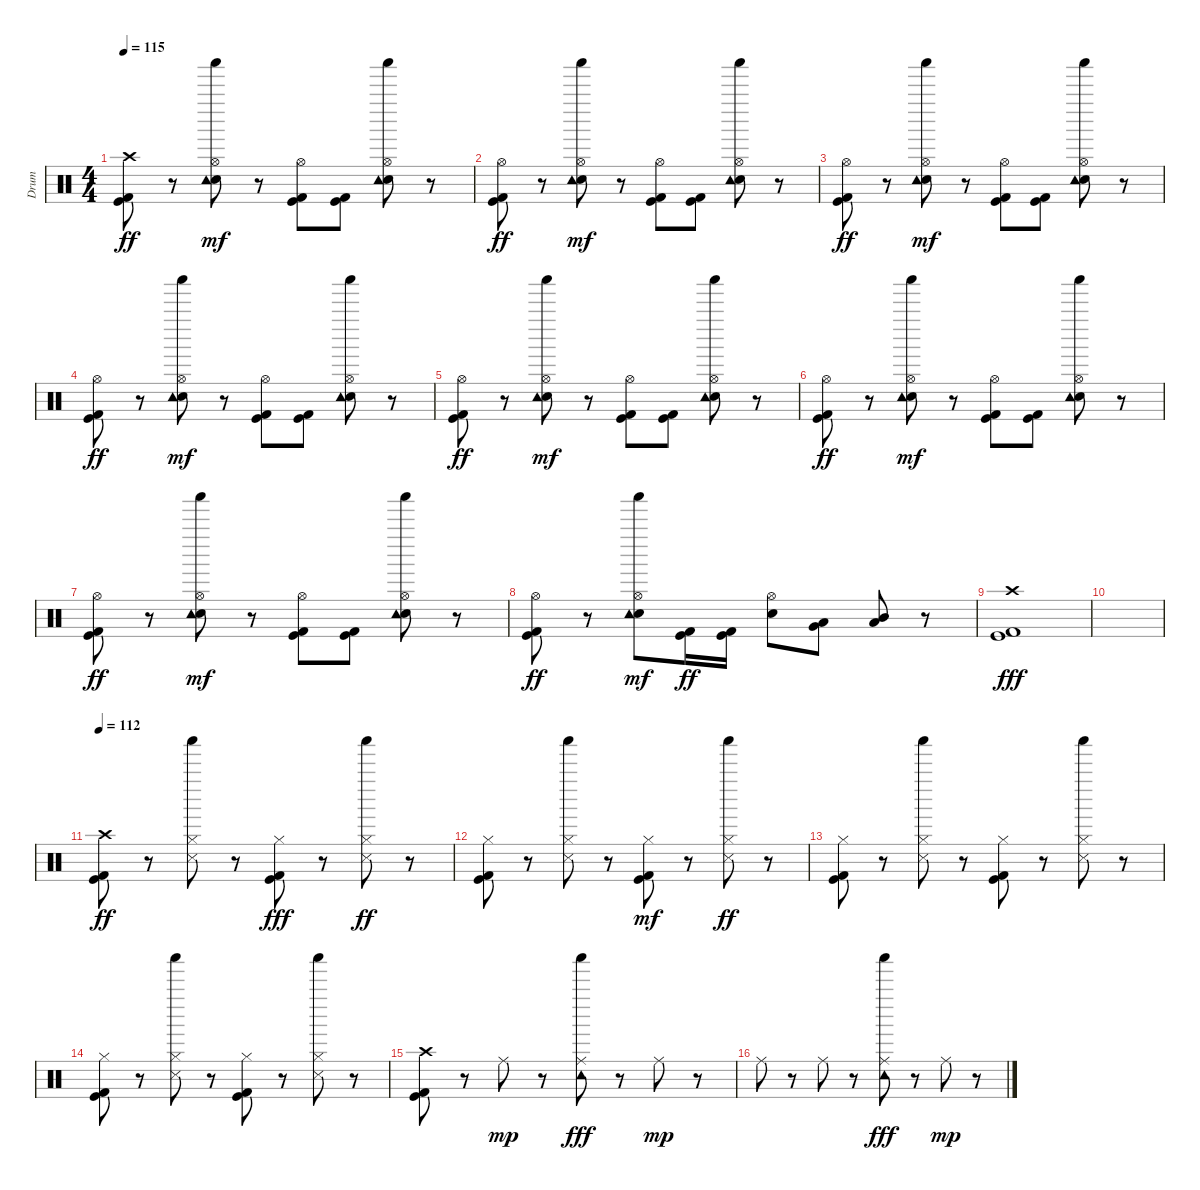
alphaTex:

\track ("Drum" "Drum") {instrument percussion}
\staff {score}
\articulation defaults
\ts (4 4)
\tempo 115
\clef neutral
\ks c
("Crash high (hit)" "Kick (hit)" "Kick (hit) 2").8{dy ff} r.8 ("Hi-Hat (open)" "Shaker (hit)" "Snare (hit) 2" "Tambourine (hit)").8{dy mf} r.8 ("Hi-Hat (open)" "Kick (hit)" "Kick (hit) 2").8 ("Kick (hit)" "Kick (hit) 2").8 ("Hi-Hat (open)" "Shaker (hit)" "Snare (hit) 2" "Tambourine (hit)").8 r.8 |
("Hi-Hat (open)" "Kick (hit)" "Kick (hit) 2").8{dy ff} r.8 ("Hi-Hat (open)" "Shaker (hit)" "Snare (hit) 2" "Tambourine (hit)").8{dy mf} r.8 ("Hi-Hat (open)" "Kick (hit)" "Kick (hit) 2").8 ("Kick (hit)" "Kick (hit) 2").8 ("Hi-Hat (open)" "Shaker (hit)" "Snare (hit) 2" "Tambourine (hit)").8 r.8 |
("Hi-Hat (open)" "Kick (hit)" "Kick (hit) 2").8{dy ff} r.8 ("Hi-Hat (open)" "Shaker (hit)" "Snare (hit) 2" "Tambourine (hit)").8{dy mf} r.8 ("Hi-Hat (open)" "Kick (hit)" "Kick (hit) 2").8 ("Kick (hit)" "Kick (hit) 2").8 ("Hi-Hat (open)" "Shaker (hit)" "Snare (hit) 2" "Tambourine (hit)").8 r.8 |
("Hi-Hat (open)" "Kick (hit)" "Kick (hit) 2").8{dy ff} r.8 ("Hi-Hat (open)" "Shaker (hit)" "Snare (hit) 2" "Tambourine (hit)").8{dy mf} r.8 ("Hi-Hat (open)" "Kick (hit)" "Kick (hit) 2").8 ("Kick (hit)" "Kick (hit) 2").8 ("Hi-Hat (open)" "Shaker (hit)" "Snare (hit) 2" "Tambourine (hit)").8 r.8 |
("Hi-Hat (open)" "Kick (hit)" "Kick (hit) 2").8{dy ff} r.8 ("Hi-Hat (open)" "Shaker (hit)" "Snare (hit) 2" "Tambourine (hit)").8{dy mf} r.8 ("Hi-Hat (open)" "Kick (hit)" "Kick (hit) 2").8 ("Kick (hit)" "Kick (hit) 2").8 ("Hi-Hat (open)" "Shaker (hit)" "Snare (hit) 2" "Tambourine (hit)").8 r.8 |
("Hi-Hat (open)" "Kick (hit)" "Kick (hit) 2").8{dy ff} r.8 ("Hi-Hat (open)" "Shaker (hit)" "Snare (hit) 2" "Tambourine (hit)").8{dy mf} r.8 ("Hi-Hat (open)" "Kick (hit)" "Kick (hit) 2").8 ("Kick (hit)" "Kick (hit) 2").8 ("Hi-Hat (open)" "Shaker (hit)" "Snare (hit) 2" "Tambourine (hit)").8 r.8 |
("Hi-Hat (open)" "Kick (hit)" "Kick (hit) 2").8{dy ff} r.8 ("Hi-Hat (open)" "Shaker (hit)" "Snare (hit) 2" "Tambourine (hit)").8{dy mf} r.8 ("Hi-Hat (open)" "Kick (hit)" "Kick (hit) 2").8 ("Kick (hit)" "Kick (hit) 2").8 ("Hi-Hat (open)" "Shaker (hit)" "Snare (hit) 2" "Tambourine (hit)").8 r.8 |
("Hi-Hat (open)" "Kick (hit)" "Kick (hit) 2").8{dy ff} r.8 ("Hi-Hat (open)" "Shaker (hit)" "Snare (hit) 2" "Tambourine (hit)").8{dy mf} ("Kick (hit)" "Kick (hit) 2").16{dy ff} ("Kick (hit)" "Kick (hit) 2").16 ("Hi-Hat (open)" "Snare (hit) 2").8 ("Very Low Tom (hit)" "Low Floor Tom (hit)").8 ("Mid Tom (hit)" "Low Tom (hit)").8 r.8 |
("Crash high (hit)" "Kick (hit)" "Kick (hit) 2").1{dy fff} |
|
\tempo 112
("Crash high (hit)" "Kick (hit)" "Kick (hit) 2").8{dy ff} r.8 ("Hi-Hat (closed)" "Shaker (hit)" "Snare (side stick) 3").8 r.8 ("Hi-Hat (closed)" "Kick (hit)" "Kick (hit) 2").8{dy fff} r.8 ("Hi-Hat (closed)" "Shaker (hit)" "Snare (side stick) 3").8{dy ff} r.8 |
("Hi-Hat (closed)" "Kick (hit)" "Kick (hit) 2").8 r.8 ("Hi-Hat (closed)" "Shaker (hit)" "Snare (side stick) 3").8 r.8 ("Hi-Hat (closed)" "Kick (hit)" "Kick (hit) 2").8{dy mf} r.8 ("Hi-Hat (closed)" "Shaker (hit)" "Snare (side stick) 3").8{dy ff} r.8 |
("Hi-Hat (closed)" "Kick (hit)" "Kick (hit) 2").8 r.8 ("Hi-Hat (closed)" "Shaker (hit)" "Snare (side stick) 3").8 r.8 ("Hi-Hat (closed)" "Kick (hit)" "Kick (hit) 2").8 r.8 ("Hi-Hat (closed)" "Shaker (hit)" "Snare (side stick) 3").8 r.8 |
("Hi-Hat (closed)" "Kick (hit)" "Kick (hit) 2").8 r.8 ("Hi-Hat (closed)" "Shaker (hit)" "Snare (side stick) 3").8 r.8 ("Hi-Hat (closed)" "Kick (hit)" "Kick (hit) 2").8 r.8 ("Hi-Hat (closed)" "Shaker (hit)" "Snare (side stick) 3").8 r.8 |
("Crash high (hit)" "Kick (hit)" "Kick (hit) 2").8 r.8 "Ride (middle)".8{dy mp} r.8 ("Ride (middle)" "Shaker (hit)" "Tambourine (hit)").8{dy fff} r.8 "Ride (middle)".8{dy mp} r.8 |
"Ride (middle)".8 r.8 "Ride (middle)".8 r.8 ("Ride (middle)" "Shaker (hit)" "Tambourine (hit)").8{dy fff} r.8 "Ride (middle)".8{dy mp} r.8
